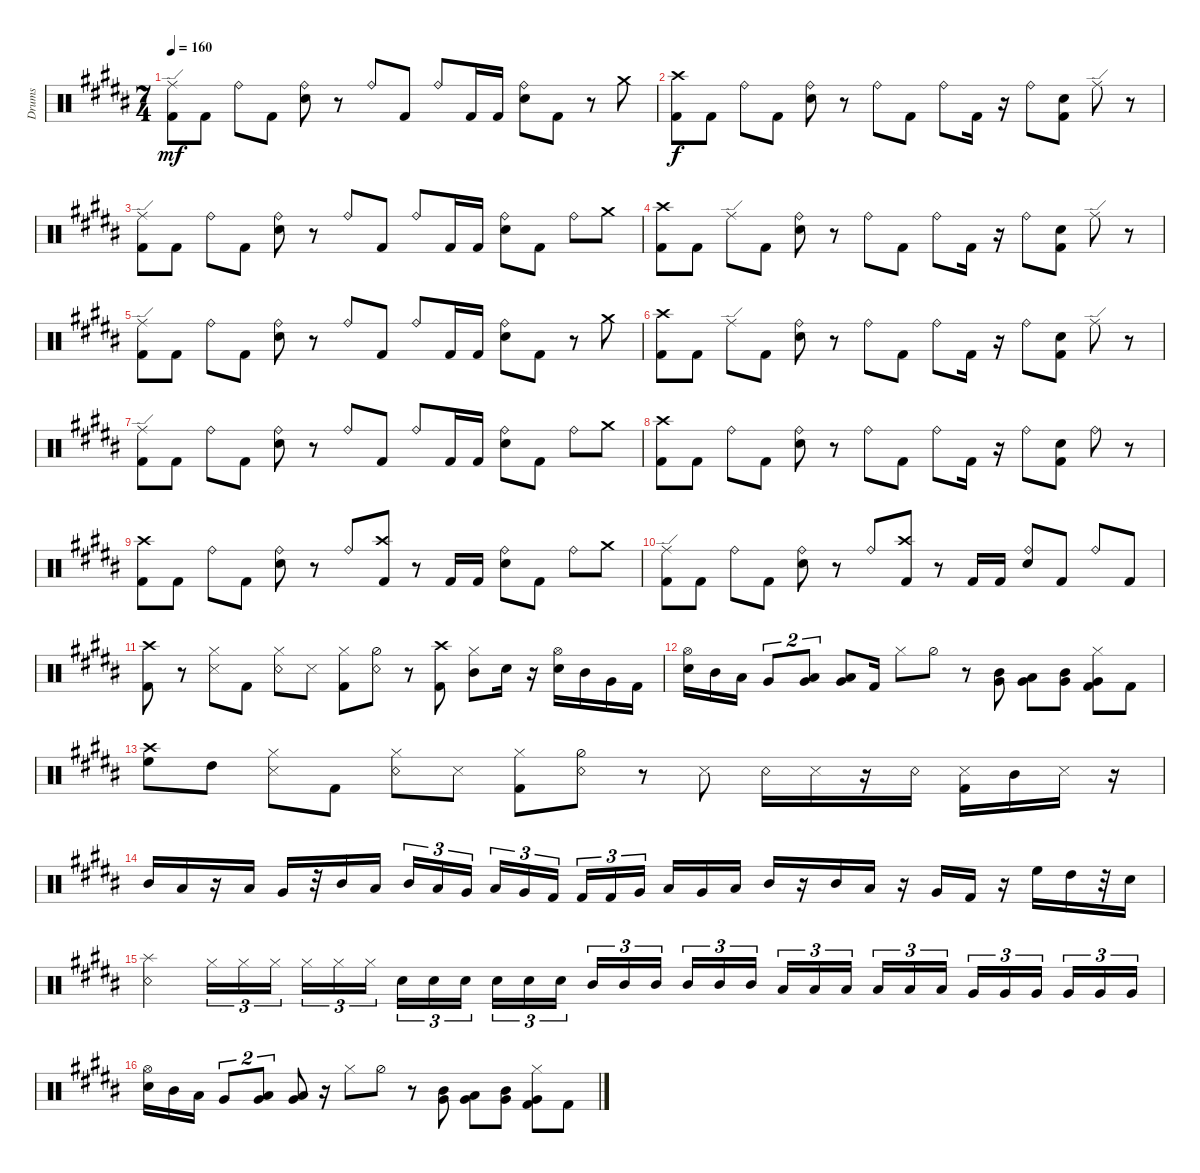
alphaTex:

\bracketExtendMode groupsimilarinstruments
\otherSystemsTrackNameOrientation horizontal
\track ("Drumkit" "Drums") {instrument percussion}
\staff {score}
\articulation defaults
\ts (7 4)
\tempo 160
\clef neutral
\ks b
("Kick (hit) 2"{acc bb} "Ride (edge)"{acc bb}).8{dy mf beam Down} "Kick (hit) 2"{acc bb}.8{beam Down} "Ride (bell)"{acc bb}.8{beam Down} "Kick (hit) 2"{acc bb}.8{beam Down} ("Snare (hit) 2"{acc bb} "Ride (bell)"{acc bb}).8{beam Down} r.8{beam Down} "Ride (bell)"{acc bb}.8{beam Up} "Kick (hit) 2"{acc bb}.8{beam Up} "Ride (bell)"{acc bb}.8{beam Up} "Kick (hit) 2"{acc bb}.16{beam Up} "Kick (hit) 2"{acc bb}.16{beam Up} ("Snare (hit) 2"{acc bb} "Ride (bell)"{acc bb}).8{beam Down} "Kick (hit) 2"{acc bb}.8{beam Down} r.8{beam Down} "Crash medium (hit)"{acc bb}.8{beam Down} |
("Crash high (hit)"{acc bb} "Kick (hit) 2"{acc bb}).8{dy f beam Down} "Kick (hit) 2"{acc bb}.8{beam Down} "Ride (bell)"{acc bb}.8{beam Down} "Kick (hit) 2"{acc bb}.8{beam Down} ("Snare (hit) 2"{acc bb} "Ride (bell)"{acc bb}).8{beam Down} r.8{beam Down} "Ride (bell)"{acc bb}.8{beam Down} "Kick (hit) 2"{acc bb}.8{beam Down} "Ride (bell)"{acc bb}.8{beam Down} "Kick (hit) 2"{acc bb}.16{beam Down} r.16{beam Down} "Ride (bell)"{acc bb}.8{beam Down} ("Kick (hit) 2"{acc bb} "Snare (hit) 2"{acc bb}).8{beam Down} "Ride (edge)"{acc bb}.8{beam Down} r.8{beam Down} |
("Kick (hit) 2"{acc bb} "Ride (edge)"{acc bb}).8{beam Down} "Kick (hit) 2"{acc bb}.8{beam Down} "Ride (bell)"{acc bb}.8{beam Down} "Kick (hit) 2"{acc bb}.8{beam Down} ("Snare (hit) 2"{acc bb} "Ride (bell)"{acc bb}).8{beam Down} r.8{beam Down} "Ride (bell)"{acc bb}.8{beam Up} "Kick (hit) 2"{acc bb}.8{beam Up} "Ride (bell)"{acc bb}.8{beam Up} "Kick (hit) 2"{acc bb}.16{beam Up} "Kick (hit) 2"{acc bb}.16{beam Up} ("Snare (hit) 2"{acc bb} "Ride (bell)"{acc bb}).8{beam Down} "Kick (hit) 2"{acc bb}.8{beam Down} "Ride (bell)"{acc bb}.8{beam Down} "Crash medium (hit)"{acc bb}.8{beam Down} |
("Crash high (hit)"{acc bb} "Kick (hit) 2"{acc bb}).8{beam Down} "Kick (hit) 2"{acc bb}.8{beam Down} "Ride (edge)"{acc bb}.8{beam Down} "Kick (hit) 2"{acc bb}.8{beam Down} ("Snare (hit) 2"{acc bb} "Ride (bell)"{acc bb}).8{beam Down} r.8{beam Down} "Ride (bell)"{acc bb}.8{beam Down} "Kick (hit) 2"{acc bb}.8{beam Down} "Ride (bell)"{acc bb}.8{beam Down} "Kick (hit) 2"{acc bb}.16{beam Down} r.16{beam Down} "Ride (bell)"{acc bb}.8{beam Down} ("Kick (hit) 2"{acc bb} "Snare (hit) 2"{acc bb}).8{beam Down} "Ride (edge)"{acc bb}.8{beam Down} r.8{beam Down} |
("Kick (hit) 2"{acc bb} "Ride (edge)"{acc bb}).8{beam Down} "Kick (hit) 2"{acc bb}.8{beam Down} "Ride (bell)"{acc bb}.8{beam Down} "Kick (hit) 2"{acc bb}.8{beam Down} ("Snare (hit) 2"{acc bb} "Ride (bell)"{acc bb}).8{beam Down} r.8{beam Down} "Ride (bell)"{acc bb}.8{beam Up} "Kick (hit) 2"{acc bb}.8{beam Up} "Ride (bell)"{acc bb}.8{beam Up} "Kick (hit) 2"{acc bb}.16{beam Up} "Kick (hit) 2"{acc bb}.16{beam Up} ("Snare (hit) 2"{acc bb} "Ride (bell)"{acc bb}).8{beam Down} "Kick (hit) 2"{acc bb}.8{beam Down} r.8{beam Down} "Crash medium (hit)"{acc bb}.8{beam Down} |
("Crash high (hit)"{acc bb} "Kick (hit) 2"{acc bb}).8{beam Down} "Kick (hit) 2"{acc bb}.8{beam Down} "Ride (edge)"{acc bb}.8{beam Down} "Kick (hit) 2"{acc bb}.8{beam Down} ("Snare (hit) 2"{acc bb} "Ride (bell)"{acc bb}).8{beam Down} r.8{beam Down} "Ride (bell)"{acc bb}.8{beam Down} "Kick (hit) 2"{acc bb}.8{beam Down} "Ride (bell)"{acc bb}.8{beam Down} "Kick (hit) 2"{acc bb}.16{beam Down} r.16{beam Down} "Ride (bell)"{acc bb}.8{beam Down} ("Kick (hit) 2"{acc bb} "Snare (hit) 2"{acc bb}).8{beam Down} "Ride (edge)"{acc bb}.8{beam Down} r.8{beam Down} |
("Kick (hit) 2"{acc bb} "Ride (edge)"{acc bb}).8{beam Down} "Kick (hit) 2"{acc bb}.8{beam Down} "Ride (bell)"{acc bb}.8{beam Down} "Kick (hit) 2"{acc bb}.8{beam Down} ("Snare (hit) 2"{acc bb} "Ride (bell)"{acc bb}).8{beam Down} r.8{beam Down} "Ride (bell)"{acc bb}.8{beam Up} "Kick (hit) 2"{acc bb}.8{beam Up} "Ride (bell)"{acc bb}.8{beam Up} "Kick (hit) 2"{acc bb}.16{beam Up} "Kick (hit) 2"{acc bb}.16{beam Up} ("Snare (hit) 2"{acc bb} "Ride (bell)"{acc bb}).8{beam Down} "Kick (hit) 2"{acc bb}.8{beam Down} "Ride (bell)"{acc bb}.8{beam Down} "Crash medium (hit)"{acc bb}.8{beam Down} |
("Crash high (hit)"{acc bb} "Kick (hit) 2"{acc bb}).8{beam Down} "Kick (hit) 2"{acc bb}.8{beam Down} "Ride (bell)"{acc bb}.8{beam Down} "Kick (hit) 2"{acc bb}.8{beam Down} ("Snare (hit) 2"{acc bb} "Ride (bell)"{acc bb}).8{beam Down} r.8{beam Down} "Ride (bell)"{acc bb}.8{beam Down} "Kick (hit) 2"{acc bb}.8{beam Down} "Ride (bell)"{acc bb}.8{beam Down} "Kick (hit) 2"{acc bb}.16{beam Down} r.16{beam Down} "Ride (bell)"{acc bb}.8{beam Down} ("Kick (hit) 2"{acc bb} "Snare (hit) 2"{acc bb}).8{beam Down} "Ride (bell)"{acc bb}.8{beam Down} r.8{beam Down} |
("Kick (hit) 2"{acc bb} "Crash high (hit)"{acc bb}).8{beam Down} "Kick (hit) 2"{acc bb}.8{beam Down} "Ride (bell)"{acc bb}.8{beam Down} "Kick (hit) 2"{acc bb}.8{beam Down} ("Snare (hit) 2"{acc bb} "Ride (bell)"{acc bb}).8{beam Down} r.8{beam Down} "Ride (bell)"{acc bb}.8{beam Up} ("Kick (hit) 2"{acc bb} "Crash high (hit)"{acc bb}).8{beam Up} r.8{beam Up} "Kick (hit) 2"{acc bb}.16{beam Up} "Kick (hit) 2"{acc bb}.16{beam Up} ("Snare (hit) 2"{acc bb} "Ride (bell)"{acc bb}).8{beam Down} "Kick (hit) 2"{acc bb}.8{beam Down} "Ride (bell)"{acc bb}.8{beam Down} "Crash medium (hit)"{acc bb}.8{beam Down} |
("Kick (hit) 2"{acc bb} "Ride (edge)"{acc bb}).8{beam Down} "Kick (hit) 2"{acc bb}.8{beam Down} "Ride (bell)"{acc bb}.8{beam Down} "Kick (hit) 2"{acc bb}.8{beam Down} ("Snare (hit) 2"{acc bb} "Ride (bell)"{acc bb}).8{beam Down} r.8{beam Down} "Ride (bell)"{acc bb}.8{beam Up} ("Kick (hit) 2"{acc bb} "Crash high (hit)"{acc bb}).8{beam Up} r.8{beam Up} "Kick (hit) 2"{acc bb}.16{beam Up} "Kick (hit) 2"{acc bb}.16{beam Up} ("Snare (hit) 2"{acc bb} "Ride (bell)"{acc bb}).8{beam Up} "Kick (hit) 2"{acc bb}.8{beam Up} "Ride (bell)"{acc bb}.8{beam Up} "Kick (hit) 2"{acc bb}.8{beam Up} |
("Crash high (hit)"{acc bb} "Kick (hit) 2"{acc bb}).8{beam Down} r.8{beam Down} ("Snare (side stick) 3"{acc bb} "Hi-Hat (closed)"{acc bb}).8{beam Down} "Kick (hit) 2"{acc bb}.8{beam Down} ("Snare (rim shot)"{acc bb} "Hi-Hat (closed)"{acc bb}).8{beam Down} "Snare (side stick) 3"{acc bb}.8{beam Down} ("Kick (hit) 2"{acc bb} "Hi-Hat (closed)"{acc bb}).8{beam Down} ("Hi-Hat (half)"{acc bb} "Snare (rim shot)"{acc bb}).8{beam Down} r.8{beam Down} ("Crash high (hit)"{acc bb} "Kick (hit) 2"{acc bb}).8{beam Down} ("Mid Tom (hit)"{acc bb} "Hi-Hat (closed)"{acc bb}).8{beam Down} "Snare (hit) 2"{acc bb}.16{beam Down} r.16{beam Down} ("Snare (hit) 2"{acc bb} "Hi-Hat (open)"{acc bb}).16{beam Down} "Mid Tom (hit)"{acc bb}.16{beam Down} "Very Low Tom (hit)"{acc bb}.16{beam Down} "Kick (hit) 2"{acc bb}.16{beam Down} |
("Hi-Hat (open)"{acc forcenatural} "Snare (hit) 2"{acc forcenatural}).16{beam Down} "Mid Tom (hit)"{acc forcenatural}.16{beam Down} "Low Tom (hit)"{acc forcenatural}.16{beam Down} "Very Low Tom (hit)"{acc forcenatural}.8{tu (2 3) beam Up} ("Very Low Tom (hit)"{acc forcenatural} "Low Tom (hit)"{acc forcenatural}).8{tu (2 3) beam Up} ("Very Low Tom (hit)"{acc forcenatural} "Low Tom (hit)"{acc forcenatural}).8{beam Up} "Kick (hit) 2"{acc forcenatural}.16{beam Up} "Hi-Hat (closed)"{acc forcenatural}.8{beam Down} "Hi-Hat (half)"{acc forcenatural}.8{beam Down} r.8{beam Down} ("Mid Tom (hit)"{acc forcenatural} "Very Low Tom (hit)"{acc forcenatural}).8{beam Down} ("Low Tom (hit)"{acc forcenatural} "Very Low Tom (hit)"{acc forcenatural}).8{beam Down} ("Mid Tom (hit)"{acc forcenatural} "Very Low Tom (hit)"{acc forcenatural}).8{beam Down} ("Very Low Tom (hit)"{acc forcenatural} "Kick (hit) 2"{acc forcenatural} "Hi-Hat (closed)"{acc forcenatural}).8{beam Down} "Kick (hit) 2"{acc forcenatural}.8{beam Down} |
("High Floor Tom (hit)"{acc forcenatural} "Crash high (hit)"{acc forcenatural}).8{beam Down} "High Tom (hit)"{acc forcenatural}.8{beam Down} ("Snare (side stick) 3"{acc bb} "Hi-Hat (closed)"{acc bb}).8{beam Down} "Kick (hit) 2"{acc bb}.8{beam Down} ("Snare (rim shot)"{acc bb} "Hi-Hat (closed)"{acc bb}).8{beam Down} "Snare (side stick) 3"{acc bb}.8{beam Down} ("Kick (hit) 2"{acc bb} "Hi-Hat (closed)"{acc bb}).8{beam Down} ("Hi-Hat (half)"{acc bb} "Snare (rim shot)"{acc bb}).8{beam Down} r.8{beam Down} "Snare (side stick) 3"{acc forcenatural}.8{beam Down} "Snare (rim shot)"{acc forcenatural}.16{beam Down} "Snare (side stick) 3"{acc forcenatural}.16{beam Down} r.16{beam Down} "Snare (rim shot)"{acc forcenatural}.16{beam Down} ("Snare (side stick) 3"{acc forcenatural} "Kick (hit) 2"{acc forcenatural}).16{beam Down} "Mid Tom (hit)"{acc forcenatural}.16{beam Down} "Snare (side stick) 3"{acc forcenatural}.16{beam Down} r.16{beam Down} |
"Mid Tom (hit)"{acc forcenatural}.16{beam Up} "Low Tom (hit)"{acc forcenatural}.16{beam Up} r.16{beam Up} "Low Tom (hit)"{acc forcenatural}.16{beam Up} "Very Low Tom (hit)"{acc forcenatural}.16{beam Up} r.32{beam Up} "Mid Tom (hit)"{acc forcenatural}.16{beam Up} "Low Tom (hit)"{acc forcenatural}.16{beam Up} "Mid Tom (hit)"{acc forcenatural}.16{tu (3 2) beam Up} "Low Tom (hit)"{acc forcenatural}.16{tu (3 2) beam Up} "Very Low Tom (hit)"{acc forcenatural}.16{tu (3 2) beam Up} "Low Tom (hit)"{acc forcenatural}.16{tu (3 2) beam Up} "Very Low Tom (hit)"{acc forcenatural}.16{tu (3 2) beam Up} "Kick (hit) 2"{acc forcenatural}.16{tu (3 2) beam Up} "Kick (hit) 2"{acc forcenatural}.16{tu (3 2) beam Up} "Kick (hit) 2"{acc forcenatural}.16{tu (3 2) beam Up} "Very Low Tom (hit)"{acc forcenatural}.16{tu (3 2) beam Up} "Low Tom (hit)"{acc forcenatural}.16{beam Up} "Very Low Tom (hit)"{acc forcenatural}.16{beam Up} "Low Tom (hit)"{acc forcenatural}.16{beam Up} "Mid Tom (hit)"{acc forcenatural}.16{beam Up} r.16{beam Up} "Mid Tom (hit)"{acc forcenatural}.16{beam Up} "Low Tom (hit)"{acc forcenatural}.16{beam Up} r.16{beam Up} "Very Low Tom (hit)"{acc forcenatural}.16{beam Down} "Kick (hit) 2"{acc forcenatural}.16{beam Down} r.16{beam Down} "High Floor Tom (hit)"{acc forcenatural}.16{beam Down} "High Tom (hit)"{acc forcenatural}.16{beam Down} r.32{beam Down} "Snare (hit) 2"{acc forcenatural}.16{beam Down} |
("Snare (rim shot)"{acc forcenatural} "Splash (hit)"{acc forcenatural}).2{beam Down} "Hi-Hat (closed)"{acc forcenatural}.16{tu (3 2) beam Down} "Hi-Hat (closed)"{acc forcenatural}.16{tu (3 2) beam Down} "Hi-Hat (closed)"{acc forcenatural}.16{tu (3 2) beam Down} "Hi-Hat (closed)"{acc forcenatural}.16{tu (3 2) beam Down} "Hi-Hat (closed)"{acc forcenatural}.16{tu (3 2) beam Down} "Hi-Hat (closed)"{acc forcenatural}.16{tu (3 2) beam Down} "Snare (hit) 2"{acc forcenatural}.16{tu (3 2) beam Down} "Snare (hit) 2"{acc forcenatural}.16{tu (3 2) beam Down} "Snare (hit) 2"{acc forcenatural}.16{tu (3 2) beam Down} "Snare (hit) 2"{acc forcenatural}.16{tu (3 2) beam Down} "Snare (hit) 2"{acc forcenatural}.16{tu (3 2) beam Down} "Snare (hit) 2"{acc forcenatural}.16{tu (3 2) beam Down} "Mid Tom (hit)"{acc forcenatural}.16{tu (3 2) beam Up} "Mid Tom (hit)"{acc forcenatural}.16{tu (3 2) beam Up} "Mid Tom (hit)"{acc forcenatural}.16{tu (3 2) beam Up} "Mid Tom (hit)"{acc forcenatural}.16{tu (3 2) beam Up} "Mid Tom (hit)"{acc forcenatural}.16{tu (3 2) beam Up} "Mid Tom (hit)"{acc forcenatural}.16{tu (3 2) beam Up} "Low Tom (hit)"{acc forcenatural}.16{tu (3 2) beam Up} "Low Tom (hit)"{acc forcenatural}.16{tu (3 2) beam Up} "Low Tom (hit)"{acc forcenatural}.16{tu (3 2) beam Up} "Low Tom (hit)"{acc forcenatural}.16{tu (3 2) beam Up} "Low Tom (hit)"{acc forcenatural}.16{tu (3 2) beam Up} "Low Tom (hit)"{acc forcenatural}.16{tu (3 2) beam Up} "Very Low Tom (hit)"{acc forcenatural}.16{tu (3 2) beam Up} "Very Low Tom (hit)"{acc forcenatural}.16{tu (3 2) beam Up} "Very Low Tom (hit)"{acc forcenatural}.16{tu (3 2) beam Up} "Very Low Tom (hit)"{acc forcenatural}.16{tu (3 2) beam Up} "Very Low Tom (hit)"{acc forcenatural}.16{tu (3 2) beam Up} "Very Low Tom (hit)"{acc forcenatural}.16{tu (3 2) beam Up} |
("Hi-Hat (open)"{acc forcenatural} "Snare (hit) 2"{acc forcenatural}).16{beam Down} "Mid Tom (hit)"{acc forcenatural}.16{beam Down} "Low Tom (hit)"{acc forcenatural}.16{beam Down} "Very Low Tom (hit)"{acc forcenatural}.8{tu (2 3) beam Up} ("Very Low Tom (hit)"{acc forcenatural} "Low Tom (hit)"{acc forcenatural}).8{tu (2 3) beam Up} ("Very Low Tom (hit)"{acc forcenatural} "Low Tom (hit)"{acc forcenatural}).8{beam Up} r.16{beam Up} "Hi-Hat (closed)"{acc forcenatural}.8{beam Down} "Hi-Hat (half)"{acc forcenatural}.8{beam Down} r.8{beam Down} ("Mid Tom (hit)"{acc forcenatural} "Very Low Tom (hit)"{acc forcenatural}).8{beam Down} ("Low Tom (hit)"{acc forcenatural} "Very Low Tom (hit)"{acc forcenatural}).8{beam Down} ("Mid Tom (hit)"{acc forcenatural} "Very Low Tom (hit)"{acc forcenatural}).8{beam Down} ("Very Low Tom (hit)"{acc forcenatural} "Kick (hit) 2"{acc forcenatural} "Hi-Hat (closed)"{acc forcenatural}).8{beam Down} "Kick (hit) 2"{acc forcenatural}.8{beam Down}
